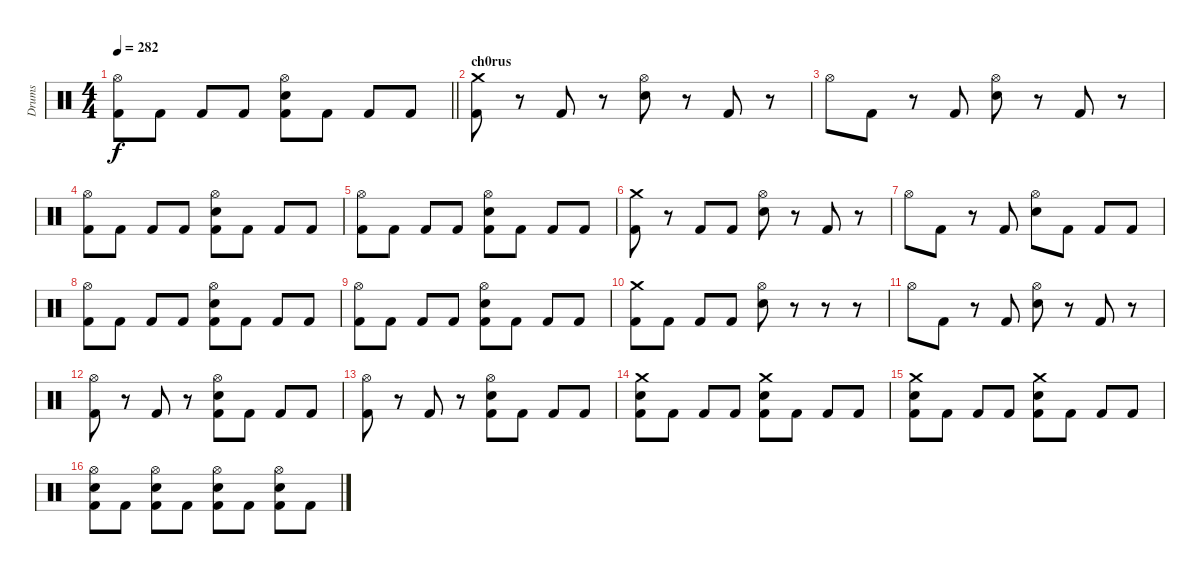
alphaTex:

\track ("Drums" "Drums") {instrument percussion}
\staff {score}
\articulation defaults
\ts (4 4)
\tempo 282
\clef neutral
\barLineRight lightlight
\ks c
("Hi-Hat (open)" "Kick (hit) 2").8{dy f} "Kick (hit) 2".8 "Kick (hit) 2".8 "Kick (hit) 2".8 ("Hi-Hat (open)" "Snare (hit) 2" "Kick (hit) 2").8 "Kick (hit) 2".8 "Kick (hit) 2".8 "Kick (hit) 2".8 |
\section ("" "ch0rus")
("Crash medium (hit)" "Kick (hit) 2").8 r.8 "Kick (hit) 2".8 r.8 ("Hi-Hat (open)" "Snare (hit) 2").8 r.8 "Kick (hit) 2".8 r.8 |
"Hi-Hat (open)".8 "Kick (hit) 2".8 r.8 "Kick (hit) 2".8 ("Hi-Hat (open)" "Snare (hit) 2").8 r.8 "Kick (hit) 2".8 r.8 |
("Hi-Hat (open)" "Kick (hit) 2").8 "Kick (hit) 2".8 "Kick (hit) 2".8 "Kick (hit) 2".8 ("Hi-Hat (open)" "Snare (hit) 2" "Kick (hit) 2").8 "Kick (hit) 2".8 "Kick (hit) 2".8 "Kick (hit) 2".8 |
("Hi-Hat (open)" "Kick (hit) 2").8 "Kick (hit) 2".8 "Kick (hit) 2".8 "Kick (hit) 2".8 ("Hi-Hat (open)" "Snare (hit) 2" "Kick (hit) 2").8 "Kick (hit) 2".8 "Kick (hit) 2".8 "Kick (hit) 2".8 |
("Crash medium (hit)" "Kick (hit) 2").8 r.8 "Kick (hit) 2".8 "Kick (hit) 2".8 ("Hi-Hat (open)" "Snare (hit) 2").8 r.8 "Kick (hit) 2".8 r.8 |
"Hi-Hat (open)".8 "Kick (hit) 2".8 r.8 "Kick (hit) 2".8 ("Hi-Hat (open)" "Snare (hit) 2").8 "Kick (hit) 2".8 "Kick (hit) 2".8 "Kick (hit) 2".8 |
("Hi-Hat (open)" "Kick (hit) 2").8 "Kick (hit) 2".8 "Kick (hit) 2".8 "Kick (hit) 2".8 ("Hi-Hat (open)" "Snare (hit) 2" "Kick (hit) 2").8 "Kick (hit) 2".8 "Kick (hit) 2".8 "Kick (hit) 2".8 |
("Hi-Hat (open)" "Kick (hit) 2").8 "Kick (hit) 2".8 "Kick (hit) 2".8 "Kick (hit) 2".8 ("Hi-Hat (open)" "Snare (hit) 2" "Kick (hit) 2").8 "Kick (hit) 2".8 "Kick (hit) 2".8 "Kick (hit) 2".8 |
("Crash medium (hit)" "Kick (hit) 2").8 "Kick (hit) 2".8 "Kick (hit) 2".8 "Kick (hit) 2".8 ("Hi-Hat (open)" "Snare (hit) 2").8 r.8 r.8 r.8 |
"Hi-Hat (open)".8 "Kick (hit) 2".8 r.8 "Kick (hit) 2".8 ("Hi-Hat (open)" "Snare (hit) 2").8 r.8 "Kick (hit) 2".8 r.8 |
("Hi-Hat (open)" "Kick (hit) 2").8 r.8 "Kick (hit) 2".8 r.8 ("Hi-Hat (open)" "Snare (hit) 2" "Kick (hit) 2").8 "Kick (hit) 2".8 "Kick (hit) 2".8 "Kick (hit) 2".8 |
("Hi-Hat (open)" "Kick (hit) 2").8 r.8 "Kick (hit) 2".8 r.8 ("Hi-Hat (open)" "Snare (hit) 2" "Kick (hit) 2").8 "Kick (hit) 2".8 "Kick (hit) 2".8 "Kick (hit) 2".8 |
("Crash medium (hit)" "Snare (hit) 2" "Kick (hit) 2").8 "Kick (hit) 2".8 "Kick (hit) 2".8 "Kick (hit) 2".8 ("Crash medium (hit)" "Snare (hit) 2" "Kick (hit) 2").8 "Kick (hit) 2".8 "Kick (hit) 2".8 "Kick (hit) 2".8 |
("Crash medium (hit)" "Snare (hit) 2" "Kick (hit) 2").8 "Kick (hit) 2".8 "Kick (hit) 2".8 "Kick (hit) 2".8 ("Crash medium (hit)" "Snare (hit) 2" "Kick (hit) 2").8 "Kick (hit) 2".8 "Kick (hit) 2".8 "Kick (hit) 2".8 |
("Hi-Hat (open)" "Snare (hit) 2" "Kick (hit) 2").8 "Kick (hit) 2".8 ("Hi-Hat (open)" "Snare (hit) 2" "Kick (hit) 2").8 "Kick (hit) 2".8 ("Hi-Hat (open)" "Snare (hit) 2" "Kick (hit) 2").8 "Kick (hit) 2".8 ("Hi-Hat (open)" "Snare (hit) 2" "Kick (hit) 2").8 "Kick (hit) 2".8
